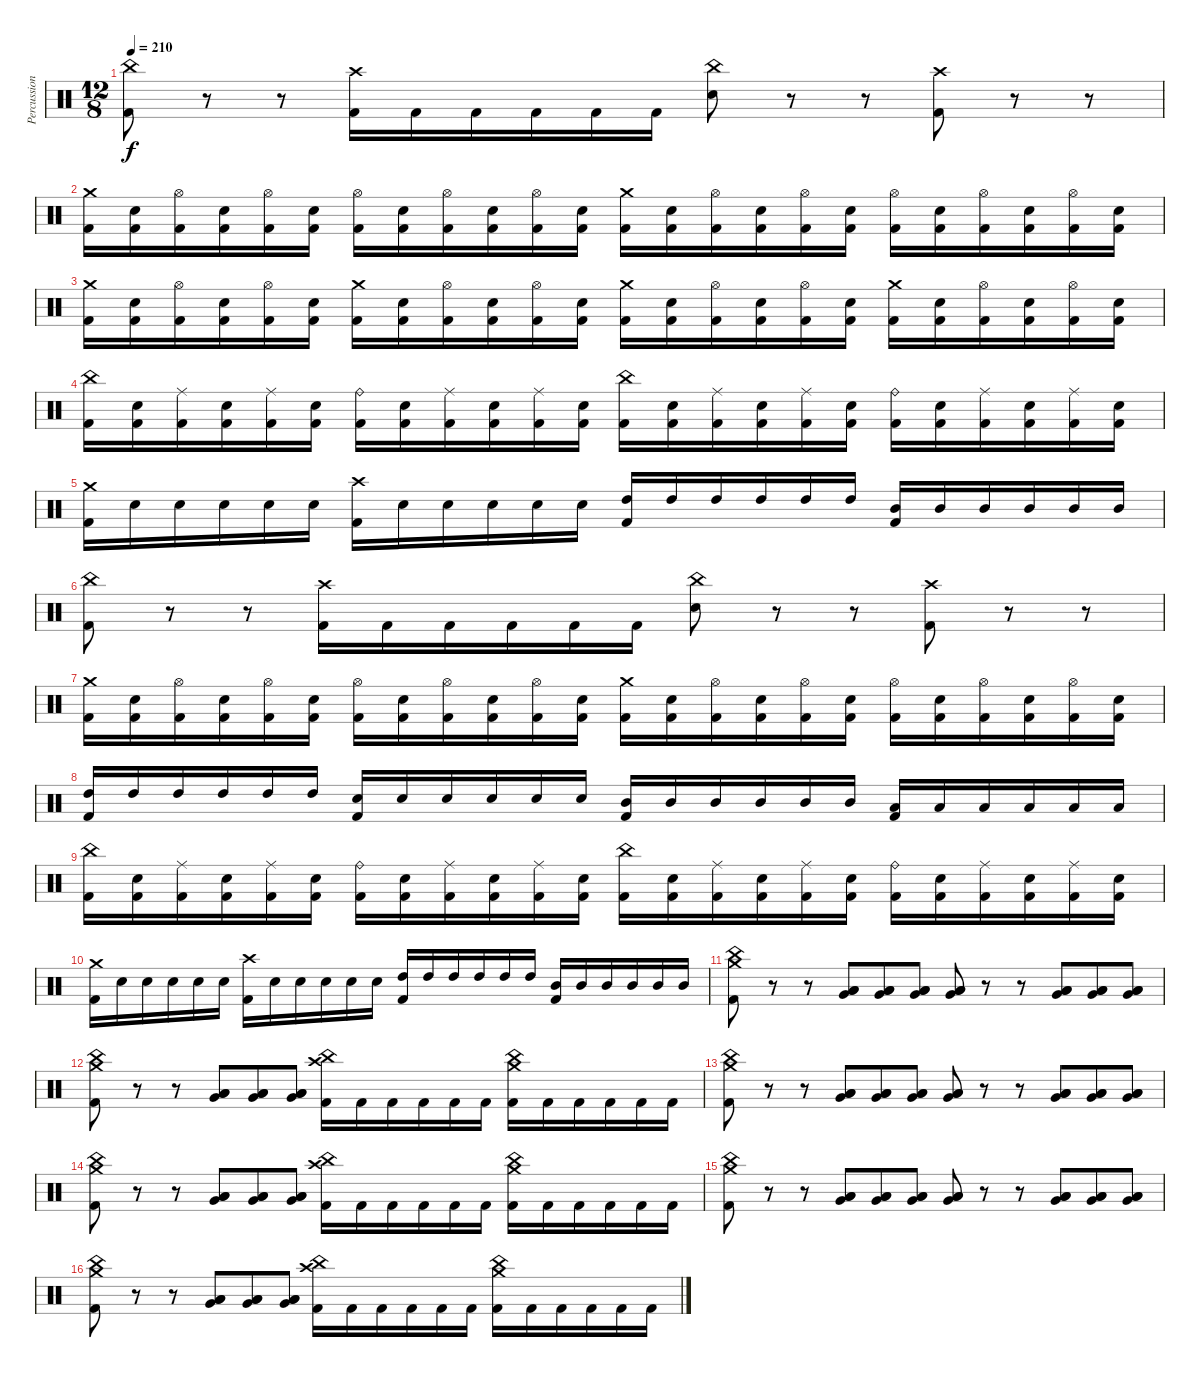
\track ("Percussion" "Percussion") {instrument percussion}
\staff {score}
\articulation defaults
\ts (12 8)
\tempo 210
\clef neutral
\ks c
("China (hit)" "Kick (hit) 2").8{dy f} r.8 r.8 ("Crash high (hit)" "Kick (hit) 2").16 "Kick (hit) 2".16 "Kick (hit) 2".16 "Kick (hit) 2".16 "Kick (hit) 2".16 "Kick (hit) 2".16 ("China (hit)" "Electric Snare (hit)").8 r.8 r.8 ("Crash high (hit)" "Kick (hit) 2").8 r.8 r.8 |
("Crash medium (hit)" "Kick (hit) 2").16 ("Electric Snare (hit)" "Kick (hit) 2").16 ("Hi-Hat (open)" "Kick (hit) 2").16 ("Electric Snare (hit)" "Kick (hit) 2").16 ("Hi-Hat (open)" "Kick (hit) 2").16 ("Electric Snare (hit)" "Kick (hit) 2").16 ("Hi-Hat (open)" "Kick (hit) 2").16 ("Electric Snare (hit)" "Kick (hit) 2").16 ("Hi-Hat (open)" "Kick (hit) 2").16 ("Electric Snare (hit)" "Kick (hit) 2").16 ("Hi-Hat (open)" "Kick (hit) 2").16 ("Electric Snare (hit)" "Kick (hit) 2").16 ("Crash medium (hit)" "Kick (hit) 2").16 ("Electric Snare (hit)" "Kick (hit) 2").16 ("Hi-Hat (open)" "Kick (hit) 2").16 ("Electric Snare (hit)" "Kick (hit) 2").16 ("Hi-Hat (open)" "Kick (hit) 2").16 ("Electric Snare (hit)" "Kick (hit) 2").16 ("Hi-Hat (open)" "Kick (hit) 2").16 ("Electric Snare (hit)" "Kick (hit) 2").16 ("Hi-Hat (open)" "Kick (hit) 2").16 ("Electric Snare (hit)" "Kick (hit) 2").16 ("Hi-Hat (open)" "Kick (hit) 2").16 ("Electric Snare (hit)" "Kick (hit) 2").16 |
("Crash medium (hit)" "Kick (hit) 2").16 ("Electric Snare (hit)" "Kick (hit) 2").16 ("Hi-Hat (open)" "Kick (hit) 2").16 ("Electric Snare (hit)" "Kick (hit) 2").16 ("Hi-Hat (open)" "Kick (hit) 2").16 ("Electric Snare (hit)" "Kick (hit) 2").16 ("Crash medium (hit)" "Kick (hit) 2").16 ("Electric Snare (hit)" "Kick (hit) 2").16 ("Hi-Hat (open)" "Kick (hit) 2").16 ("Electric Snare (hit)" "Kick (hit) 2").16 ("Hi-Hat (open)" "Kick (hit) 2").16 ("Electric Snare (hit)" "Kick (hit) 2").16 ("Crash medium (hit)" "Kick (hit) 2").16 ("Electric Snare (hit)" "Kick (hit) 2").16 ("Hi-Hat (open)" "Kick (hit) 2").16 ("Electric Snare (hit)" "Kick (hit) 2").16 ("Hi-Hat (open)" "Kick (hit) 2").16 ("Electric Snare (hit)" "Kick (hit) 2").16 ("Crash medium (hit)" "Kick (hit) 2").16 ("Electric Snare (hit)" "Kick (hit) 2").16 ("Hi-Hat (open)" "Kick (hit) 2").16 ("Electric Snare (hit)" "Kick (hit) 2").16 ("Hi-Hat (open)" "Kick (hit) 2").16 ("Electric Snare (hit)" "Kick (hit) 2").16 |
("China (hit)" "Kick (hit) 2").16 ("Electric Snare (hit)" "Kick (hit) 2").16 ("Ride (middle)" "Kick (hit) 2").16 ("Electric Snare (hit)" "Kick (hit) 2").16 ("Ride (middle)" "Kick (hit) 2").16 ("Electric Snare (hit)" "Kick (hit) 2").16 ("Ride (bell)" "Kick (hit) 2").16 ("Electric Snare (hit)" "Kick (hit) 2").16 ("Ride (middle)" "Kick (hit) 2").16 ("Electric Snare (hit)" "Kick (hit) 2").16 ("Ride (middle)" "Kick (hit) 2").16 ("Electric Snare (hit)" "Kick (hit) 2").16 ("China (hit)" "Kick (hit) 2").16 ("Electric Snare (hit)" "Kick (hit) 2").16 ("Ride (middle)" "Kick (hit) 2").16 ("Electric Snare (hit)" "Kick (hit) 2").16 ("Ride (middle)" "Kick (hit) 2").16 ("Electric Snare (hit)" "Kick (hit) 2").16 ("Ride (bell)" "Kick (hit) 2").16 ("Electric Snare (hit)" "Kick (hit) 2").16 ("Ride (middle)" "Kick (hit) 2").16 ("Electric Snare (hit)" "Kick (hit) 2").16 ("Ride (middle)" "Kick (hit) 2").16 ("Electric Snare (hit)" "Kick (hit) 2").16 |
("Crash medium (hit)" "Kick (hit) 2").16 "Electric Snare (hit)".16 "Electric Snare (hit)".16 "Electric Snare (hit)".16 "Electric Snare (hit)".16 "Electric Snare (hit)".16 ("Crash high (hit)" "Kick (hit) 2").16 "Electric Snare (hit)".16 "Electric Snare (hit)".16 "Electric Snare (hit)".16 "Electric Snare (hit)".16 "Electric Snare (hit)".16 ("High Tom (hit)" "Kick (hit) 2").16 "High Tom (hit)".16 "High Tom (hit)".16 "High Tom (hit)".16 "High Tom (hit)".16 "High Tom (hit)".16 ("Mid Tom (hit)" "Kick (hit) 2").16 "Mid Tom (hit)".16 "Mid Tom (hit)".16 "Mid Tom (hit)".16 "Mid Tom (hit)".16 "Mid Tom (hit)".16 |
("China (hit)" "Kick (hit) 2").8 r.8 r.8 ("Crash high (hit)" "Kick (hit) 2").16 "Kick (hit) 2".16 "Kick (hit) 2".16 "Kick (hit) 2".16 "Kick (hit) 2".16 "Kick (hit) 2".16 ("China (hit)" "Electric Snare (hit)").8 r.8 r.8 ("Crash high (hit)" "Kick (hit) 2").8 r.8 r.8 |
("Crash medium (hit)" "Kick (hit) 2").16 ("Electric Snare (hit)" "Kick (hit) 2").16 ("Hi-Hat (open)" "Kick (hit) 2").16 ("Electric Snare (hit)" "Kick (hit) 2").16 ("Hi-Hat (open)" "Kick (hit) 2").16 ("Electric Snare (hit)" "Kick (hit) 2").16 ("Hi-Hat (open)" "Kick (hit) 2").16 ("Electric Snare (hit)" "Kick (hit) 2").16 ("Hi-Hat (open)" "Kick (hit) 2").16 ("Electric Snare (hit)" "Kick (hit) 2").16 ("Hi-Hat (open)" "Kick (hit) 2").16 ("Electric Snare (hit)" "Kick (hit) 2").16 ("Crash medium (hit)" "Kick (hit) 2").16 ("Electric Snare (hit)" "Kick (hit) 2").16 ("Hi-Hat (open)" "Kick (hit) 2").16 ("Electric Snare (hit)" "Kick (hit) 2").16 ("Hi-Hat (open)" "Kick (hit) 2").16 ("Electric Snare (hit)" "Kick (hit) 2").16 ("Hi-Hat (open)" "Kick (hit) 2").16 ("Electric Snare (hit)" "Kick (hit) 2").16 ("Hi-Hat (open)" "Kick (hit) 2").16 ("Electric Snare (hit)" "Kick (hit) 2").16 ("Hi-Hat (open)" "Kick (hit) 2").16 ("Electric Snare (hit)" "Kick (hit) 2").16 |
("High Tom (hit)" "Kick (hit) 2").16 "High Tom (hit)".16 "High Tom (hit)".16 "High Tom (hit)".16 "High Tom (hit)".16 "High Tom (hit)".16 ("Electric Snare (hit)" "Kick (hit) 2").16 "Electric Snare (hit)".16 "Electric Snare (hit)".16 "Electric Snare (hit)".16 "Electric Snare (hit)".16 "Electric Snare (hit)".16 ("Mid Tom (hit)" "Kick (hit) 2").16 "Mid Tom (hit)".16 "Mid Tom (hit)".16 "Mid Tom (hit)".16 "Mid Tom (hit)".16 "Mid Tom (hit)".16 ("Low Tom (hit)" "Kick (hit) 2").16 "Low Tom (hit)".16 "Low Tom (hit)".16 "Low Tom (hit)".16 "Low Tom (hit)".16 "Low Tom (hit)".16 |
("China (hit)" "Kick (hit) 2").16 ("Electric Snare (hit)" "Kick (hit) 2").16 ("Ride (middle)" "Kick (hit) 2").16 ("Electric Snare (hit)" "Kick (hit) 2").16 ("Ride (middle)" "Kick (hit) 2").16 ("Electric Snare (hit)" "Kick (hit) 2").16 ("Ride (bell)" "Kick (hit) 2").16 ("Electric Snare (hit)" "Kick (hit) 2").16 ("Ride (middle)" "Kick (hit) 2").16 ("Electric Snare (hit)" "Kick (hit) 2").16 ("Ride (middle)" "Kick (hit) 2").16 ("Electric Snare (hit)" "Kick (hit) 2").16 ("China (hit)" "Kick (hit) 2").16 ("Electric Snare (hit)" "Kick (hit) 2").16 ("Ride (middle)" "Kick (hit) 2").16 ("Electric Snare (hit)" "Kick (hit) 2").16 ("Ride (middle)" "Kick (hit) 2").16 ("Electric Snare (hit)" "Kick (hit) 2").16 ("Ride (bell)" "Kick (hit) 2").16 ("Electric Snare (hit)" "Kick (hit) 2").16 ("Ride (middle)" "Kick (hit) 2").16 ("Electric Snare (hit)" "Kick (hit) 2").16 ("Ride (middle)" "Kick (hit) 2").16 ("Electric Snare (hit)" "Kick (hit) 2").16 |
("Crash medium (hit)" "Kick (hit) 2").16 "Electric Snare (hit)".16 "Electric Snare (hit)".16 "Electric Snare (hit)".16 "Electric Snare (hit)".16 "Electric Snare (hit)".16 ("Crash high (hit)" "Kick (hit) 2").16 "Electric Snare (hit)".16 "Electric Snare (hit)".16 "Electric Snare (hit)".16 "Electric Snare (hit)".16 "Electric Snare (hit)".16 ("High Tom (hit)" "Kick (hit) 2").16 "High Tom (hit)".16 "High Tom (hit)".16 "High Tom (hit)".16 "High Tom (hit)".16 "High Tom (hit)".16 ("Mid Tom (hit)" "Kick (hit) 2").16 "Mid Tom (hit)".16 "Mid Tom (hit)".16 "Mid Tom (hit)".16 "Mid Tom (hit)".16 "Mid Tom (hit)".16 |
("China (hit)" "Crash medium (hit)" "Kick (hit) 2").8 r.8 r.8 ("Low Tom (hit)" "Low Floor Tom (hit)" "Very Low Tom (hit)").8 ("Low Tom (hit)" "Low Floor Tom (hit)" "Very Low Tom (hit)").8 ("Low Tom (hit)" "Low Floor Tom (hit)" "Very Low Tom (hit)").8 ("Low Tom (hit)" "Low Floor Tom (hit)" "Very Low Tom (hit)").8 r.8 r.8 ("Low Tom (hit)" "Low Floor Tom (hit)" "Very Low Tom (hit)").8 ("Low Tom (hit)" "Low Floor Tom (hit)" "Very Low Tom (hit)").8 ("Low Tom (hit)" "Low Floor Tom (hit)" "Very Low Tom (hit)").8 |
("China (hit)" "Crash medium (hit)" "Kick (hit) 2").8 r.8 r.8 ("Low Tom (hit)" "Low Floor Tom (hit)" "Very Low Tom (hit)").8 ("Low Tom (hit)" "Low Floor Tom (hit)" "Very Low Tom (hit)").8 ("Low Tom (hit)" "Low Floor Tom (hit)" "Very Low Tom (hit)").8 ("Crash high (hit)" "China (hit)" "Kick (hit) 2").16 "Kick (hit) 2".16 "Kick (hit) 2".16 "Kick (hit) 2".16 "Kick (hit) 2".16 "Kick (hit) 2".16 ("Crash medium (hit)" "China (hit)" "Kick (hit) 2").16 "Kick (hit) 2".16 "Kick (hit) 2".16 "Kick (hit) 2".16 "Kick (hit) 2".16 "Kick (hit) 2".16 |
("China (hit)" "Crash medium (hit)" "Kick (hit) 2").8 r.8 r.8 ("Low Tom (hit)" "Low Floor Tom (hit)" "Very Low Tom (hit)").8 ("Low Tom (hit)" "Low Floor Tom (hit)" "Very Low Tom (hit)").8 ("Low Tom (hit)" "Low Floor Tom (hit)" "Very Low Tom (hit)").8 ("Low Tom (hit)" "Low Floor Tom (hit)" "Very Low Tom (hit)").8 r.8 r.8 ("Low Tom (hit)" "Low Floor Tom (hit)" "Very Low Tom (hit)").8 ("Low Tom (hit)" "Low Floor Tom (hit)" "Very Low Tom (hit)").8 ("Low Tom (hit)" "Low Floor Tom (hit)" "Very Low Tom (hit)").8 |
("China (hit)" "Crash medium (hit)" "Kick (hit) 2").8 r.8 r.8 ("Low Tom (hit)" "Low Floor Tom (hit)" "Very Low Tom (hit)").8 ("Low Tom (hit)" "Low Floor Tom (hit)" "Very Low Tom (hit)").8 ("Low Tom (hit)" "Low Floor Tom (hit)" "Very Low Tom (hit)").8 ("Crash high (hit)" "China (hit)" "Kick (hit) 2").16 "Kick (hit) 2".16 "Kick (hit) 2".16 "Kick (hit) 2".16 "Kick (hit) 2".16 "Kick (hit) 2".16 ("Crash medium (hit)" "China (hit)" "Kick (hit) 2").16 "Kick (hit) 2".16 "Kick (hit) 2".16 "Kick (hit) 2".16 "Kick (hit) 2".16 "Kick (hit) 2".16 |
("China (hit)" "Crash medium (hit)" "Kick (hit) 2").8 r.8 r.8 ("Low Tom (hit)" "Low Floor Tom (hit)" "Very Low Tom (hit)").8 ("Low Tom (hit)" "Low Floor Tom (hit)" "Very Low Tom (hit)").8 ("Low Tom (hit)" "Low Floor Tom (hit)" "Very Low Tom (hit)").8 ("Low Tom (hit)" "Low Floor Tom (hit)" "Very Low Tom (hit)").8 r.8 r.8 ("Low Tom (hit)" "Low Floor Tom (hit)" "Very Low Tom (hit)").8 ("Low Tom (hit)" "Low Floor Tom (hit)" "Very Low Tom (hit)").8 ("Low Tom (hit)" "Low Floor Tom (hit)" "Very Low Tom (hit)").8 |
("China (hit)" "Crash medium (hit)" "Kick (hit) 2").8 r.8 r.8 ("Low Tom (hit)" "Low Floor Tom (hit)" "Very Low Tom (hit)").8 ("Low Tom (hit)" "Low Floor Tom (hit)" "Very Low Tom (hit)").8 ("Low Tom (hit)" "Low Floor Tom (hit)" "Very Low Tom (hit)").8 ("Crash high (hit)" "China (hit)" "Kick (hit) 2").16 "Kick (hit) 2".16 "Kick (hit) 2".16 "Kick (hit) 2".16 "Kick (hit) 2".16 "Kick (hit) 2".16 ("Crash medium (hit)" "China (hit)" "Kick (hit) 2").16 "Kick (hit) 2".16 "Kick (hit) 2".16 "Kick (hit) 2".16 "Kick (hit) 2".16 "Kick (hit) 2".16
